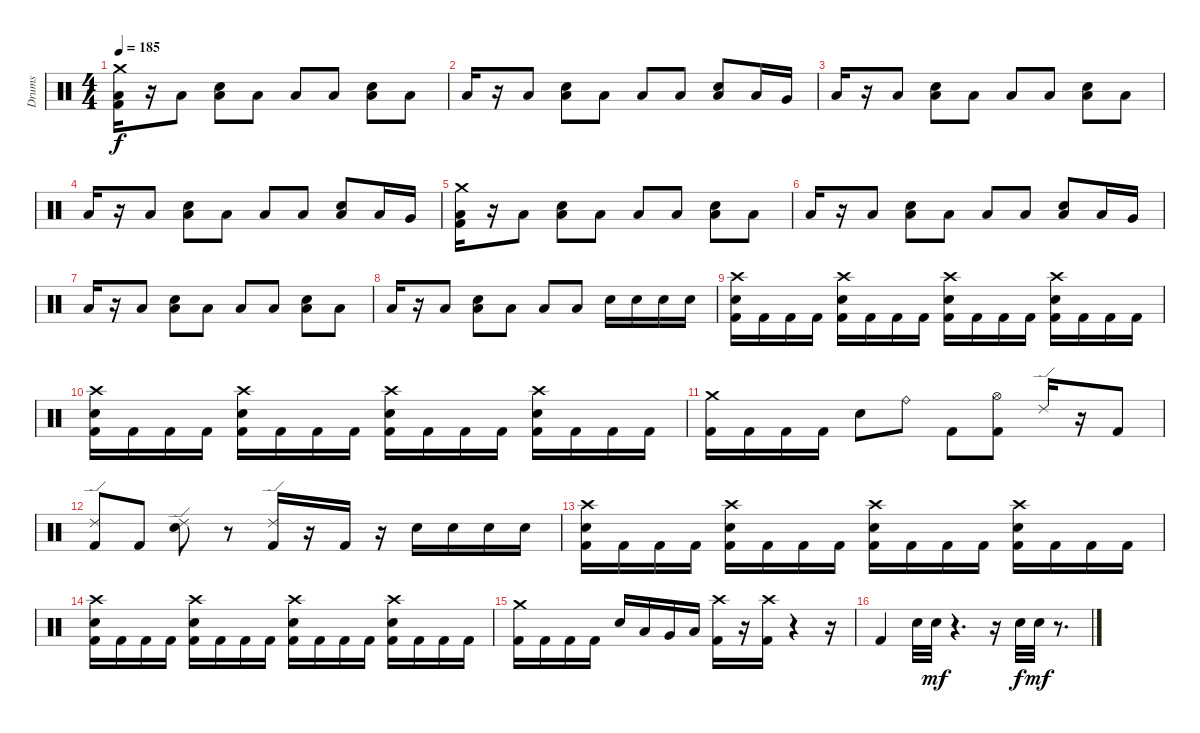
\track ("Drums" "Drums") {instrument percussion}
\staff {score}
\articulation defaults
\ts (4 4)
\tempo 185
\clef neutral
\ks c
("Low Floor Tom (hit)" "Kick (hit) 2" "Crash medium (hit)").16{dy f} r.16 "Low Floor Tom (hit)".8 ("Electric Snare (hit)" "Low Floor Tom (hit)").8 "Low Floor Tom (hit)".8 "Low Floor Tom (hit)".8 "Low Floor Tom (hit)".8 ("Electric Snare (hit)" "Low Floor Tom (hit)").8 "Low Floor Tom (hit)".8 |
"Low Floor Tom (hit)".16 r.16 "Low Floor Tom (hit)".8 ("Electric Snare (hit)" "Low Floor Tom (hit)").8 "Low Floor Tom (hit)".8 "Low Floor Tom (hit)".8 "Low Floor Tom (hit)".8 ("Electric Snare (hit)" "Low Floor Tom (hit)").8 "Low Tom (hit)".16 "Very Low Tom (hit)".16 |
"Low Floor Tom (hit)".16 r.16 "Low Floor Tom (hit)".8 ("Electric Snare (hit)" "Low Floor Tom (hit)").8 "Low Floor Tom (hit)".8 "Low Floor Tom (hit)".8 "Low Floor Tom (hit)".8 ("Electric Snare (hit)" "Low Floor Tom (hit)").8 "Low Floor Tom (hit)".8 |
"Low Floor Tom (hit)".16 r.16 "Low Floor Tom (hit)".8 ("Electric Snare (hit)" "Low Floor Tom (hit)").8 "Low Floor Tom (hit)".8 "Low Floor Tom (hit)".8 "Low Floor Tom (hit)".8 ("Electric Snare (hit)" "Low Floor Tom (hit)").8 "Low Tom (hit)".16 "Very Low Tom (hit)".16 |
("Low Floor Tom (hit)" "Kick (hit) 2" "Crash medium (hit)").16 r.16 "Low Floor Tom (hit)".8 ("Electric Snare (hit)" "Low Floor Tom (hit)").8 "Low Floor Tom (hit)".8 "Low Floor Tom (hit)".8 "Low Floor Tom (hit)".8 ("Electric Snare (hit)" "Low Floor Tom (hit)").8 "Low Floor Tom (hit)".8 |
"Low Floor Tom (hit)".16 r.16 "Low Floor Tom (hit)".8 ("Electric Snare (hit)" "Low Floor Tom (hit)").8 "Low Floor Tom (hit)".8 "Low Floor Tom (hit)".8 "Low Floor Tom (hit)".8 ("Electric Snare (hit)" "Low Floor Tom (hit)").8 "Low Tom (hit)".16 "Very Low Tom (hit)".16 |
"Low Floor Tom (hit)".16 r.16 "Low Floor Tom (hit)".8 ("Electric Snare (hit)" "Low Floor Tom (hit)").8 "Low Floor Tom (hit)".8 "Low Floor Tom (hit)".8 "Low Floor Tom (hit)".8 ("Electric Snare (hit)" "Low Floor Tom (hit)").8 "Low Floor Tom (hit)".8 |
"Low Floor Tom (hit)".16 r.16 "Low Floor Tom (hit)".8 ("Electric Snare (hit)" "Low Floor Tom (hit)").8 "Low Floor Tom (hit)".8 "Low Floor Tom (hit)".8 "Low Floor Tom (hit)".8 "Electric Snare (hit)".16 "Electric Snare (hit)".16 "Electric Snare (hit)".16 "Electric Snare (hit)".16 |
("Kick (hit) 2" "Crash high (hit)" "Electric Snare (hit)").16 "Kick (hit) 2".16 "Kick (hit) 2".16 "Kick (hit) 2".16 ("Kick (hit) 2" "Crash high (hit)" "Electric Snare (hit)").16 "Kick (hit) 2".16 "Kick (hit) 2".16 "Kick (hit) 2".16 ("Kick (hit) 2" "Crash high (hit)" "Electric Snare (hit)").16 "Kick (hit) 2".16 "Kick (hit) 2".16 "Kick (hit) 2".16 ("Kick (hit) 2" "Crash high (hit)" "Electric Snare (hit)").16 "Kick (hit) 2".16 "Kick (hit) 2".16 "Kick (hit) 2".16 |
("Kick (hit) 2" "Crash high (hit)" "Electric Snare (hit)").16 "Kick (hit) 2".16 "Kick (hit) 2".16 "Kick (hit) 2".16 ("Kick (hit) 2" "Crash high (hit)" "Electric Snare (hit)").16 "Kick (hit) 2".16 "Kick (hit) 2".16 "Kick (hit) 2".16 ("Kick (hit) 2" "Crash high (hit)" "Electric Snare (hit)").16 "Kick (hit) 2".16 "Kick (hit) 2".16 "Kick (hit) 2".16 ("Kick (hit) 2" "Crash high (hit)" "Electric Snare (hit)").16 "Kick (hit) 2".16 "Kick (hit) 2".16 "Kick (hit) 2".16 |
("Kick (hit) 2" "Crash medium (hit)").16 "Kick (hit) 2".16 "Kick (hit) 2".16 "Kick (hit) 2".16 "Electric Snare (hit)".8 "Ride (bell)".8 "Kick (hit) 2".8 ("Kick (hit) 2" "Hi-Hat (open)").8 "Ride (edge) 2".16 r.16 "Kick (hit) 2".8 |
("Kick (hit) 2" "Ride (edge) 2").8 "Kick (hit) 2".8 ("Electric Snare (hit)" "Ride (edge) 2").8 r.8 ("Kick (hit) 2" "Ride (edge) 2").16 r.16 "Kick (hit) 2".16 r.16 "Electric Snare (hit)".16 "Electric Snare (hit)".16 "Electric Snare (hit)".16 "Electric Snare (hit)".16 |
("Kick (hit) 2" "Crash high (hit)" "Electric Snare (hit)").16 "Kick (hit) 2".16 "Kick (hit) 2".16 "Kick (hit) 2".16 ("Kick (hit) 2" "Crash high (hit)" "Electric Snare (hit)").16 "Kick (hit) 2".16 "Kick (hit) 2".16 "Kick (hit) 2".16 ("Kick (hit) 2" "Crash high (hit)" "Electric Snare (hit)").16 "Kick (hit) 2".16 "Kick (hit) 2".16 "Kick (hit) 2".16 ("Kick (hit) 2" "Crash high (hit)" "Electric Snare (hit)").16 "Kick (hit) 2".16 "Kick (hit) 2".16 "Kick (hit) 2".16 |
("Kick (hit) 2" "Crash high (hit)" "Electric Snare (hit)").16 "Kick (hit) 2".16 "Kick (hit) 2".16 "Kick (hit) 2".16 ("Kick (hit) 2" "Crash high (hit)" "Electric Snare (hit)").16 "Kick (hit) 2".16 "Kick (hit) 2".16 "Kick (hit) 2".16 ("Kick (hit) 2" "Crash high (hit)" "Electric Snare (hit)").16 "Kick (hit) 2".16 "Kick (hit) 2".16 "Kick (hit) 2".16 ("Kick (hit) 2" "Crash high (hit)" "Electric Snare (hit)").16 "Kick (hit) 2".16 "Kick (hit) 2".16 "Kick (hit) 2".16 |
("Kick (hit) 2" "Crash medium (hit)").16 "Kick (hit) 2".16 "Kick (hit) 2".16 "Kick (hit) 2".16 "Electric Snare (hit)".16 "Low Tom (hit)".16 "Very Low Tom (hit)".16 "Low Floor Tom (hit)".16 ("Crash high (hit)" "Kick (hit) 2").16 r.16 ("Crash high (hit)" "Kick (hit) 2").16 r.4 r.16 |
"Kick (hit) 2".4 "Electric Snare (hit)".32 "Electric Snare (hit)".32{dy mf} r.4{d} r.16 "Electric Snare (hit)".32{dy f} "Electric Snare (hit)".32{dy mf} r.8{d}
